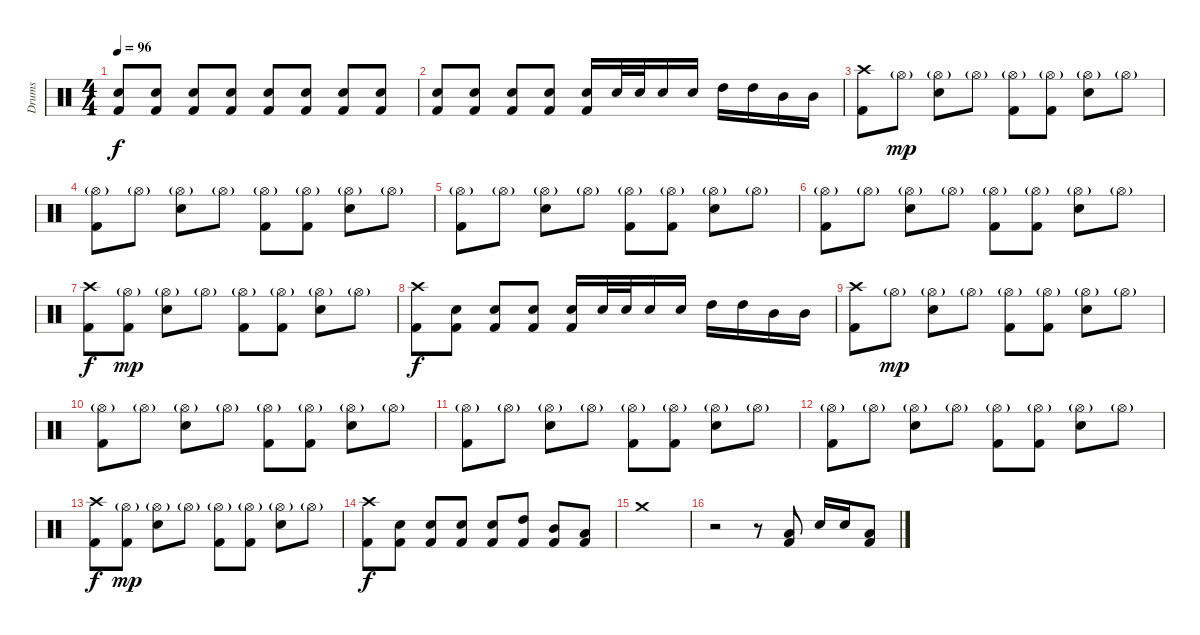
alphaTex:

\track ("Drums" "Drums") {instrument percussion}
\staff {score}
\articulation defaults
\ts (4 4)
\tempo 96
\clef neutral
\ks c
("Electric Snare (hit)" "Kick (hit) 2").8{dy f volume 3} ("Electric Snare (hit)" "Kick (hit) 2").8{volume 12} ("Electric Snare (hit)" "Kick (hit) 2").8 ("Electric Snare (hit)" "Kick (hit) 2").8 ("Electric Snare (hit)" "Kick (hit) 2").8 ("Electric Snare (hit)" "Kick (hit) 2").8 ("Electric Snare (hit)" "Kick (hit) 2").8 ("Electric Snare (hit)" "Kick (hit) 2").8 |
("Electric Snare (hit)" "Kick (hit) 2").8 ("Electric Snare (hit)" "Kick (hit) 2").8 ("Electric Snare (hit)" "Kick (hit) 2").8 ("Electric Snare (hit)" "Kick (hit) 2").8 ("Electric Snare (hit)" "Kick (hit) 2").16 "Electric Snare (hit)".32 "Electric Snare (hit)".32 "Electric Snare (hit)".16 "Electric Snare (hit)".16 "High Tom (hit)".16 "High Tom (hit)".16 "Mid Tom (hit)".16 "Mid Tom (hit)".16 |
("Crash high (hit)" "Kick (hit) 2").8 "Hi-Hat (open)"{g}.8{dy mp} ("Hi-Hat (open)"{g} "Electric Snare (hit)").8 "Hi-Hat (open)"{g}.8 ("Hi-Hat (open)"{g} "Kick (hit) 2").8 ("Hi-Hat (open)"{g} "Kick (hit) 2").8 ("Hi-Hat (open)"{g} "Electric Snare (hit)").8 "Hi-Hat (open)"{g}.8 |
("Hi-Hat (open)"{g} "Kick (hit) 2").8 "Hi-Hat (open)"{g}.8 ("Hi-Hat (open)"{g} "Electric Snare (hit)").8 "Hi-Hat (open)"{g}.8 ("Hi-Hat (open)"{g} "Kick (hit) 2").8 ("Hi-Hat (open)"{g} "Kick (hit) 2").8 ("Hi-Hat (open)"{g} "Electric Snare (hit)").8 "Hi-Hat (open)"{g}.8 |
("Hi-Hat (open)"{g} "Kick (hit) 2").8 "Hi-Hat (open)"{g}.8 ("Hi-Hat (open)"{g} "Electric Snare (hit)").8 "Hi-Hat (open)"{g}.8 ("Hi-Hat (open)"{g} "Kick (hit) 2").8 ("Hi-Hat (open)"{g} "Kick (hit) 2").8 ("Hi-Hat (open)"{g} "Electric Snare (hit)").8 "Hi-Hat (open)"{g}.8 |
("Hi-Hat (open)"{g} "Kick (hit) 2").8 "Hi-Hat (open)"{g}.8 ("Hi-Hat (open)"{g} "Electric Snare (hit)").8 "Hi-Hat (open)"{g}.8 ("Hi-Hat (open)"{g} "Kick (hit) 2").8 ("Hi-Hat (open)"{g} "Kick (hit) 2").8 ("Hi-Hat (open)"{g} "Electric Snare (hit)").8 "Hi-Hat (open)"{g}.8 |
("Crash high (hit)" "Kick (hit) 2").8{dy f} ("Hi-Hat (open)"{g} "Kick (hit) 2").8{dy mp} ("Hi-Hat (open)"{g} "Electric Snare (hit)").8 "Hi-Hat (open)"{g}.8 ("Hi-Hat (open)"{g} "Kick (hit) 2").8 ("Hi-Hat (open)"{g} "Kick (hit) 2").8 ("Hi-Hat (open)"{g} "Electric Snare (hit)").8 "Hi-Hat (open)"{g}.8 |
("Crash high (hit)" "Kick (hit) 2").8{dy f} ("Electric Snare (hit)" "Kick (hit) 2").8 ("Electric Snare (hit)" "Kick (hit) 2").8 ("Electric Snare (hit)" "Kick (hit) 2").8 ("Electric Snare (hit)" "Kick (hit) 2").16 "Electric Snare (hit)".32 "Electric Snare (hit)".32 "Electric Snare (hit)".16 "Electric Snare (hit)".16 "High Tom (hit)".16 "High Tom (hit)".16 "Mid Tom (hit)".16 "Mid Tom (hit)".16 |
("Crash high (hit)" "Kick (hit) 2").8 "Hi-Hat (open)"{g}.8{dy mp} ("Hi-Hat (open)"{g} "Electric Snare (hit)").8 "Hi-Hat (open)"{g}.8 ("Hi-Hat (open)"{g} "Kick (hit) 2").8 ("Hi-Hat (open)"{g} "Kick (hit) 2").8 ("Hi-Hat (open)"{g} "Electric Snare (hit)").8 "Hi-Hat (open)"{g}.8 |
("Hi-Hat (open)"{g} "Kick (hit) 2").8 "Hi-Hat (open)"{g}.8 ("Hi-Hat (open)"{g} "Electric Snare (hit)").8 "Hi-Hat (open)"{g}.8 ("Hi-Hat (open)"{g} "Kick (hit) 2").8 ("Hi-Hat (open)"{g} "Kick (hit) 2").8 ("Hi-Hat (open)"{g} "Electric Snare (hit)").8 "Hi-Hat (open)"{g}.8 |
("Hi-Hat (open)"{g} "Kick (hit) 2").8 "Hi-Hat (open)"{g}.8 ("Hi-Hat (open)"{g} "Electric Snare (hit)").8 "Hi-Hat (open)"{g}.8 ("Hi-Hat (open)"{g} "Kick (hit) 2").8 ("Hi-Hat (open)"{g} "Kick (hit) 2").8 ("Hi-Hat (open)"{g} "Electric Snare (hit)").8 "Hi-Hat (open)"{g}.8 |
("Hi-Hat (open)"{g} "Kick (hit) 2").8 "Hi-Hat (open)"{g}.8 ("Hi-Hat (open)"{g} "Electric Snare (hit)").8 "Hi-Hat (open)"{g}.8 ("Hi-Hat (open)"{g} "Kick (hit) 2").8 ("Hi-Hat (open)"{g} "Kick (hit) 2").8 ("Hi-Hat (open)"{g} "Electric Snare (hit)").8 "Hi-Hat (open)"{g}.8 |
("Crash high (hit)" "Kick (hit) 2").8{dy f} ("Hi-Hat (open)"{g} "Kick (hit) 2").8{dy mp} ("Hi-Hat (open)"{g} "Electric Snare (hit)").8 "Hi-Hat (open)"{g}.8 ("Hi-Hat (open)"{g} "Kick (hit) 2").8 ("Hi-Hat (open)"{g} "Kick (hit) 2").8 ("Hi-Hat (open)"{g} "Electric Snare (hit)").8 "Hi-Hat (open)"{g}.8 |
("Crash high (hit)" "Kick (hit) 2").8{dy f} ("Electric Snare (hit)" "Kick (hit) 2").8 ("Electric Snare (hit)" "Kick (hit) 2").8 ("Electric Snare (hit)" "Kick (hit) 2").8 ("Electric Snare (hit)" "Kick (hit) 2").8 ("High Tom (hit)" "Kick (hit) 2").8 ("Mid Tom (hit)" "Kick (hit) 2").8 ("Low Tom (hit)" "Kick (hit) 2").8 |
"Crash medium (hit)".1 |
r.2 r.8 ("Low Tom (hit)" "Kick (hit) 2").8 "Electric Snare (hit)".16 "Electric Snare (hit)".16 ("Low Tom (hit)" "Kick (hit) 2").8
